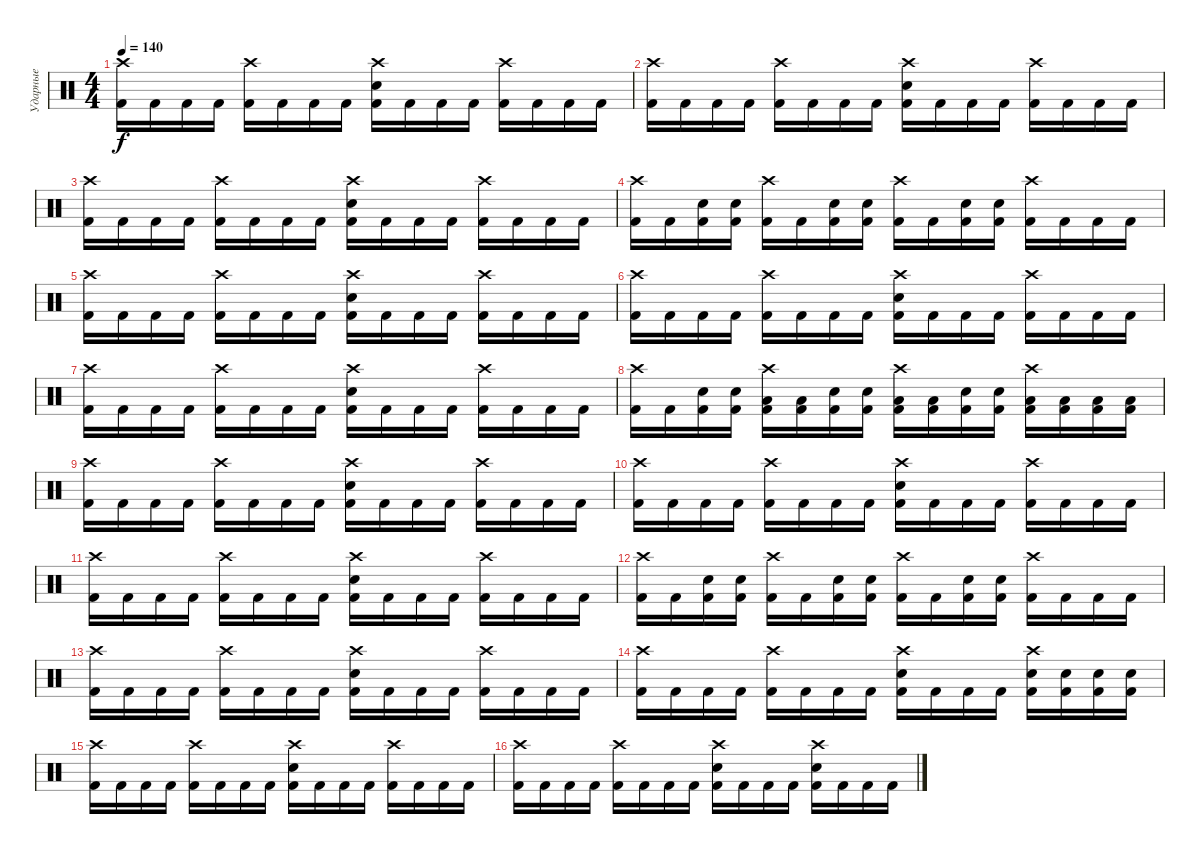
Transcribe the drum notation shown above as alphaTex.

\track ("Ударные" "Ударные") {instrument percussion}
\staff {score}
\articulation defaults
\ts (4 4)
\tempo 140
\clef neutral
\ks c
("Crash high (hit)" "Kick (hit) 2").16{dy f} "Kick (hit) 2".16 "Kick (hit) 2".16 "Kick (hit) 2".16 ("Crash high (hit)" "Kick (hit) 2").16 "Kick (hit) 2".16 "Kick (hit) 2".16 "Kick (hit) 2".16 ("Crash high (hit)" "Electric Snare (hit)" "Kick (hit) 2").16 "Kick (hit) 2".16 "Kick (hit) 2".16 "Kick (hit) 2".16 ("Crash high (hit)" "Kick (hit) 2").16 "Kick (hit) 2".16 "Kick (hit) 2".16 "Kick (hit) 2".16 |
("Crash high (hit)" "Kick (hit) 2").16 "Kick (hit) 2".16 "Kick (hit) 2".16 "Kick (hit) 2".16 ("Crash high (hit)" "Kick (hit) 2").16 "Kick (hit) 2".16 "Kick (hit) 2".16 "Kick (hit) 2".16 ("Crash high (hit)" "Electric Snare (hit)" "Kick (hit) 2").16 "Kick (hit) 2".16 "Kick (hit) 2".16 "Kick (hit) 2".16 ("Crash high (hit)" "Kick (hit) 2").16 "Kick (hit) 2".16 "Kick (hit) 2".16 "Kick (hit) 2".16 |
("Crash high (hit)" "Kick (hit) 2").16 "Kick (hit) 2".16 "Kick (hit) 2".16 "Kick (hit) 2".16 ("Crash high (hit)" "Kick (hit) 2").16 "Kick (hit) 2".16 "Kick (hit) 2".16 "Kick (hit) 2".16 ("Crash high (hit)" "Electric Snare (hit)" "Kick (hit) 2").16 "Kick (hit) 2".16 "Kick (hit) 2".16 "Kick (hit) 2".16 ("Crash high (hit)" "Kick (hit) 2").16 "Kick (hit) 2".16 "Kick (hit) 2".16 "Kick (hit) 2".16 |
("Crash high (hit)" "Kick (hit) 2").16 "Kick (hit) 2".16 ("Electric Snare (hit)" "Kick (hit) 2").16 ("Electric Snare (hit)" "Kick (hit) 2").16 ("Crash high (hit)" "Kick (hit) 2").16 "Kick (hit) 2".16 ("Electric Snare (hit)" "Kick (hit) 2").16 ("Electric Snare (hit)" "Kick (hit) 2").16 ("Crash high (hit)" "Kick (hit) 2").16 "Kick (hit) 2".16 ("Electric Snare (hit)" "Kick (hit) 2").16 ("Electric Snare (hit)" "Kick (hit) 2").16 ("Crash high (hit)" "Kick (hit) 2").16 "Kick (hit) 2".16 "Kick (hit) 2".16 "Kick (hit) 2".16 |
("Crash high (hit)" "Kick (hit) 2").16 "Kick (hit) 2".16 "Kick (hit) 2".16 "Kick (hit) 2".16 ("Crash high (hit)" "Kick (hit) 2").16 "Kick (hit) 2".16 "Kick (hit) 2".16 "Kick (hit) 2".16 ("Crash high (hit)" "Electric Snare (hit)" "Kick (hit) 2").16 "Kick (hit) 2".16 "Kick (hit) 2".16 "Kick (hit) 2".16 ("Crash high (hit)" "Kick (hit) 2").16 "Kick (hit) 2".16 "Kick (hit) 2".16 "Kick (hit) 2".16 |
("Crash high (hit)" "Kick (hit) 2").16 "Kick (hit) 2".16 "Kick (hit) 2".16 "Kick (hit) 2".16 ("Crash high (hit)" "Kick (hit) 2").16 "Kick (hit) 2".16 "Kick (hit) 2".16 "Kick (hit) 2".16 ("Crash high (hit)" "Electric Snare (hit)" "Kick (hit) 2").16 "Kick (hit) 2".16 "Kick (hit) 2".16 "Kick (hit) 2".16 ("Crash high (hit)" "Kick (hit) 2").16 "Kick (hit) 2".16 "Kick (hit) 2".16 "Kick (hit) 2".16 |
("Crash high (hit)" "Kick (hit) 2").16 "Kick (hit) 2".16 "Kick (hit) 2".16 "Kick (hit) 2".16 ("Crash high (hit)" "Kick (hit) 2").16 "Kick (hit) 2".16 "Kick (hit) 2".16 "Kick (hit) 2".16 ("Crash high (hit)" "Electric Snare (hit)" "Kick (hit) 2").16 "Kick (hit) 2".16 "Kick (hit) 2".16 "Kick (hit) 2".16 ("Crash high (hit)" "Kick (hit) 2").16 "Kick (hit) 2".16 "Kick (hit) 2".16 "Kick (hit) 2".16 |
("Crash high (hit)" "Kick (hit) 2").16 "Kick (hit) 2".16 ("Electric Snare (hit)" "Kick (hit) 2").16 ("Electric Snare (hit)" "Kick (hit) 2").16 ("Crash high (hit)" "Low Tom (hit)" "Kick (hit) 2").16 ("Low Tom (hit)" "Kick (hit) 2").16 ("Electric Snare (hit)" "Kick (hit) 2").16 ("Electric Snare (hit)" "Kick (hit) 2").16 ("Crash high (hit)" "Low Tom (hit)" "Kick (hit) 2").16 ("Low Tom (hit)" "Kick (hit) 2").16 ("Electric Snare (hit)" "Kick (hit) 2").16 ("Electric Snare (hit)" "Kick (hit) 2").16 ("Crash high (hit)" "Low Tom (hit)" "Kick (hit) 2").16 ("Low Tom (hit)" "Kick (hit) 2").16 ("Low Floor Tom (hit)" "Kick (hit) 2").16 ("Low Floor Tom (hit)" "Kick (hit) 2").16 |
("Crash high (hit)" "Kick (hit) 2").16 "Kick (hit) 2".16 "Kick (hit) 2".16 "Kick (hit) 2".16 ("Crash high (hit)" "Kick (hit) 2").16 "Kick (hit) 2".16 "Kick (hit) 2".16 "Kick (hit) 2".16 ("Crash high (hit)" "Electric Snare (hit)" "Kick (hit) 2").16 "Kick (hit) 2".16 "Kick (hit) 2".16 "Kick (hit) 2".16 ("Crash high (hit)" "Kick (hit) 2").16 "Kick (hit) 2".16 "Kick (hit) 2".16 "Kick (hit) 2".16 |
("Crash high (hit)" "Kick (hit) 2").16 "Kick (hit) 2".16 "Kick (hit) 2".16 "Kick (hit) 2".16 ("Crash high (hit)" "Kick (hit) 2").16 "Kick (hit) 2".16 "Kick (hit) 2".16 "Kick (hit) 2".16 ("Crash high (hit)" "Electric Snare (hit)" "Kick (hit) 2").16 "Kick (hit) 2".16 "Kick (hit) 2".16 "Kick (hit) 2".16 ("Crash high (hit)" "Kick (hit) 2").16 "Kick (hit) 2".16 "Kick (hit) 2".16 "Kick (hit) 2".16 |
("Crash high (hit)" "Kick (hit) 2").16 "Kick (hit) 2".16 "Kick (hit) 2".16 "Kick (hit) 2".16 ("Crash high (hit)" "Kick (hit) 2").16 "Kick (hit) 2".16 "Kick (hit) 2".16 "Kick (hit) 2".16 ("Crash high (hit)" "Electric Snare (hit)" "Kick (hit) 2").16 "Kick (hit) 2".16 "Kick (hit) 2".16 "Kick (hit) 2".16 ("Crash high (hit)" "Kick (hit) 2").16 "Kick (hit) 2".16 "Kick (hit) 2".16 "Kick (hit) 2".16 |
("Crash high (hit)" "Kick (hit) 2").16 "Kick (hit) 2".16 ("Electric Snare (hit)" "Kick (hit) 2").16 ("Electric Snare (hit)" "Kick (hit) 2").16 ("Crash high (hit)" "Kick (hit) 2").16 "Kick (hit) 2".16 ("Electric Snare (hit)" "Kick (hit) 2").16 ("Electric Snare (hit)" "Kick (hit) 2").16 ("Crash high (hit)" "Kick (hit) 2").16 "Kick (hit) 2".16 ("Electric Snare (hit)" "Kick (hit) 2").16 ("Electric Snare (hit)" "Kick (hit) 2").16 ("Crash high (hit)" "Kick (hit) 2").16 "Kick (hit) 2".16 "Kick (hit) 2".16 "Kick (hit) 2".16 |
("Crash high (hit)" "Kick (hit) 2").16 "Kick (hit) 2".16 "Kick (hit) 2".16 "Kick (hit) 2".16 ("Crash high (hit)" "Kick (hit) 2").16 "Kick (hit) 2".16 "Kick (hit) 2".16 "Kick (hit) 2".16 ("Crash high (hit)" "Electric Snare (hit)" "Kick (hit) 2").16 "Kick (hit) 2".16 "Kick (hit) 2".16 "Kick (hit) 2".16 ("Crash high (hit)" "Kick (hit) 2").16 "Kick (hit) 2".16 "Kick (hit) 2".16 "Kick (hit) 2".16 |
("Crash high (hit)" "Kick (hit) 2").16 "Kick (hit) 2".16 "Kick (hit) 2".16 "Kick (hit) 2".16 ("Crash high (hit)" "Kick (hit) 2").16 "Kick (hit) 2".16 "Kick (hit) 2".16 "Kick (hit) 2".16 ("Crash high (hit)" "Electric Snare (hit)" "Kick (hit) 2").16 "Kick (hit) 2".16 "Kick (hit) 2".16 "Kick (hit) 2".16 ("Crash high (hit)" "Electric Snare (hit)" "Kick (hit) 2").16 ("Electric Snare (hit)" "Kick (hit) 2").16 ("Electric Snare (hit)" "Kick (hit) 2").16 ("Electric Snare (hit)" "Kick (hit) 2").16 |
("Crash high (hit)" "Kick (hit) 2").16 "Kick (hit) 2".16 "Kick (hit) 2".16 "Kick (hit) 2".16 ("Crash high (hit)" "Kick (hit) 2").16 "Kick (hit) 2".16 "Kick (hit) 2".16 "Kick (hit) 2".16 ("Crash high (hit)" "Electric Snare (hit)" "Kick (hit) 2").16 "Kick (hit) 2".16 "Kick (hit) 2".16 "Kick (hit) 2".16 ("Crash high (hit)" "Kick (hit) 2").16 "Kick (hit) 2".16 "Kick (hit) 2".16 "Kick (hit) 2".16 |
("Crash high (hit)" "Kick (hit) 2").16 "Kick (hit) 2".16 "Kick (hit) 2".16 "Kick (hit) 2".16 ("Crash high (hit)" "Kick (hit) 2").16 "Kick (hit) 2".16 "Kick (hit) 2".16 "Kick (hit) 2".16 ("Crash high (hit)" "Electric Snare (hit)" "Kick (hit) 2").16 "Kick (hit) 2".16 "Kick (hit) 2".16 "Kick (hit) 2".16 ("Crash high (hit)" "Electric Snare (hit)" "Kick (hit) 2").16 "Kick (hit) 2".16 "Kick (hit) 2".16 "Kick (hit) 2".16
